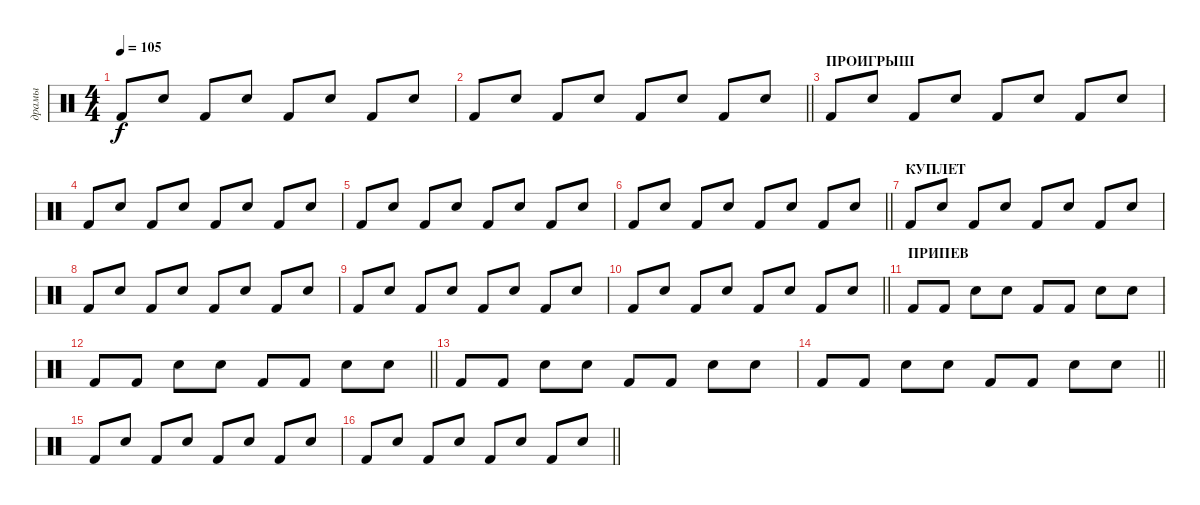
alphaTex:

\track ("драмы" "драмы") {instrument percussion}
\staff {score}
\articulation defaults
\ts (4 4)
\tempo 105
\clef neutral
\ks c "Kick (hit) 2".8{dy f} "Electric Snare (hit)".8 "Kick (hit) 2".8 "Electric Snare (hit)".8 "Kick (hit) 2".8 "Electric Snare (hit)".8 "Kick (hit) 2".8 "Electric Snare (hit)".8
|
\barLineRight lightlight "Kick (hit) 2".8 "Electric Snare (hit)".8 "Kick (hit) 2".8 "Electric Snare (hit)".8 "Kick (hit) 2".8 "Electric Snare (hit)".8 "Kick (hit) 2".8 "Electric Snare (hit)".8
|
\section ("" "ПРОИГРЫШ")
"Kick (hit) 2".8 "Electric Snare (hit)".8 "Kick (hit) 2".8 "Electric Snare (hit)".8 "Kick (hit) 2".8 "Electric Snare (hit)".8 "Kick (hit) 2".8 "Electric Snare (hit)".8 |
"Kick (hit) 2".8 "Electric Snare (hit)".8 "Kick (hit) 2".8 "Electric Snare (hit)".8 "Kick (hit) 2".8 "Electric Snare (hit)".8 "Kick (hit) 2".8 "Electric Snare (hit)".8 |
"Kick (hit) 2".8 "Electric Snare (hit)".8 "Kick (hit) 2".8 "Electric Snare (hit)".8 "Kick (hit) 2".8 "Electric Snare (hit)".8 "Kick (hit) 2".8 "Electric Snare (hit)".8 |
\barLineRight lightlight "Kick (hit) 2".8 "Electric Snare (hit)".8 "Kick (hit) 2".8 "Electric Snare (hit)".8 "Kick (hit) 2".8 "Electric Snare (hit)".8 "Kick (hit) 2".8 "Electric Snare (hit)".8
|
\section ("" "КУПЛЕТ")
"Kick (hit) 2".8 "Electric Snare (hit)".8 "Kick (hit) 2".8 "Electric Snare (hit)".8 "Kick (hit) 2".8 "Electric Snare (hit)".8 "Kick (hit) 2".8 "Electric Snare (hit)".8 |
"Kick (hit) 2".8 "Electric Snare (hit)".8 "Kick (hit) 2".8 "Electric Snare (hit)".8 "Kick (hit) 2".8 "Electric Snare (hit)".8 "Kick (hit) 2".8 "Electric Snare (hit)".8 |
"Kick (hit) 2".8 "Electric Snare (hit)".8 "Kick (hit) 2".8 "Electric Snare (hit)".8 "Kick (hit) 2".8 "Electric Snare (hit)".8 "Kick (hit) 2".8 "Electric Snare (hit)".8 |
\barLineRight lightlight "Kick (hit) 2".8 "Electric Snare (hit)".8 "Kick (hit) 2".8 "Electric Snare (hit)".8 "Kick (hit) 2".8 "Electric Snare (hit)".8 "Kick (hit) 2".8 "Electric Snare (hit)".8
|
\section ("" "ПРИПЕВ")
"Kick (hit) 2".8 "Kick (hit) 2".8 "Electric Snare (hit)".8 "Electric Snare (hit)".8 "Kick (hit) 2".8 "Kick (hit) 2".8 "Electric Snare (hit)".8 "Electric Snare (hit)".8 |
\barLineRight lightlight "Kick (hit) 2".8 "Kick (hit) 2".8 "Electric Snare (hit)".8 "Electric Snare (hit)".8 "Kick (hit) 2".8 "Kick (hit) 2".8 "Electric Snare (hit)".8 "Electric Snare (hit)".8
|
"Kick (hit) 2".8 "Kick (hit) 2".8 "Electric Snare (hit)".8 "Electric Snare (hit)".8 "Kick (hit) 2".8 "Kick (hit) 2".8 "Electric Snare (hit)".8 "Electric Snare (hit)".8 |
\barLineRight lightlight "Kick (hit) 2".8 "Kick (hit) 2".8 "Electric Snare (hit)".8 "Electric Snare (hit)".8 "Kick (hit) 2".8 "Kick (hit) 2".8 "Electric Snare (hit)".8 "Electric Snare (hit)".8
|
"Kick (hit) 2".8 "Electric Snare (hit)".8 "Kick (hit) 2".8 "Electric Snare (hit)".8 "Kick (hit) 2".8 "Electric Snare (hit)".8 "Kick (hit) 2".8 "Electric Snare (hit)".8 |
\barLineRight lightlight "Kick (hit) 2".8 "Electric Snare (hit)".8 "Kick (hit) 2".8 "Electric Snare (hit)".8 "Kick (hit) 2".8 "Electric Snare (hit)".8 "Kick (hit) 2".8 "Electric Snare (hit)".8
